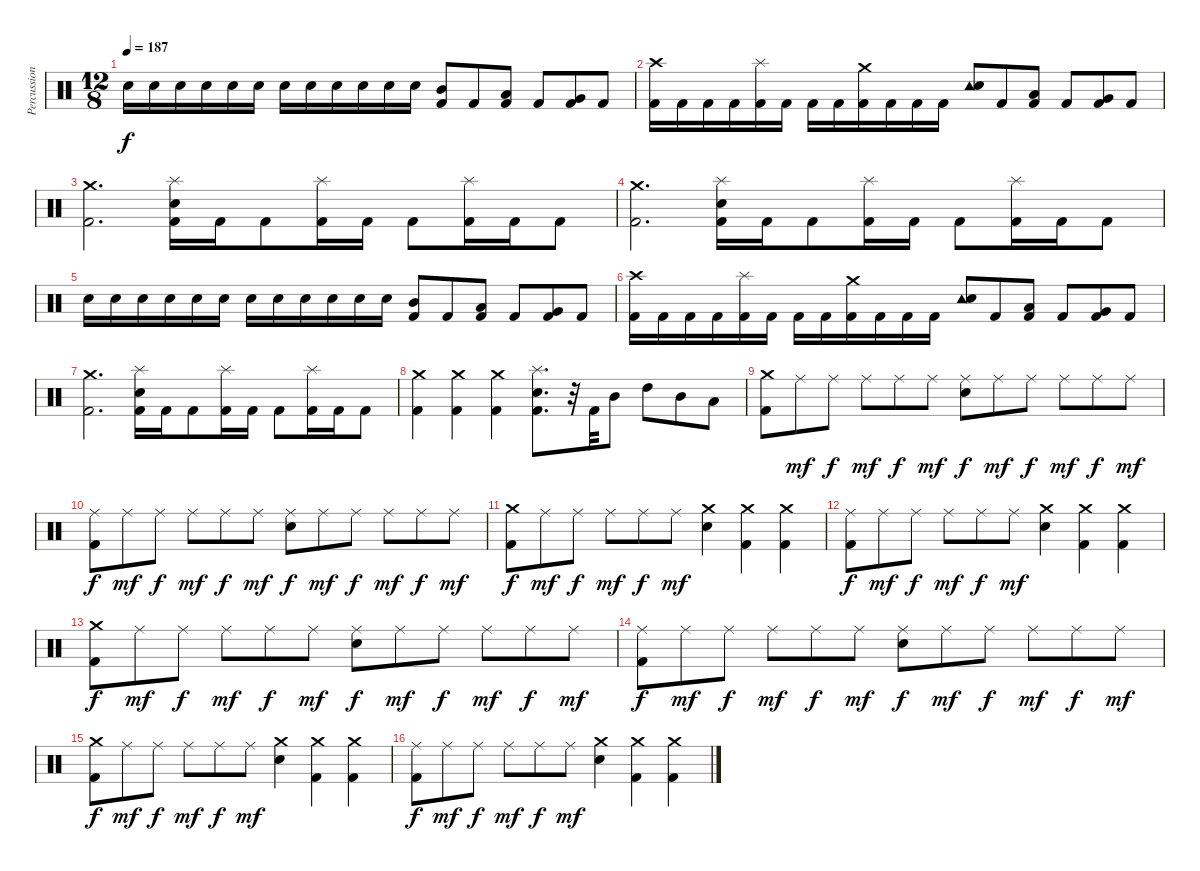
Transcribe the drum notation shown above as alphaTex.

\track ("Percussion" "Percussion") {instrument percussion}
\staff {score}
\articulation defaults
\ts (12 8)
\tempo 187
\clef neutral
\ks c "Snare (hit) 2".16{dy f} "Snare (hit) 2".16 "Snare (hit) 2".16 "Snare (hit) 2".16 "Snare (hit) 2".16 "Snare (hit) 2".16 "Snare (hit) 2".16 "Snare (hit) 2".16 "Snare (hit) 2".16 "Snare (hit) 2".16 "Snare (hit) 2".16 "Snare (hit) 2".16
("Mid Tom (hit)" "Kick (hit) 2").8 "Kick (hit) 2".8 ("Low Tom (hit)" "Kick (hit) 2").8 "Kick (hit) 2".8 ("Very Low Tom (hit)" "Kick (hit) 2").8 "Kick (hit) 2".8 |
("Crash high (hit)" "Kick (hit) 2").16 "Kick (hit) 2".16 "Kick (hit) 2".16 "Kick (hit) 2".16 ("Splash (hit)" "Kick (hit) 2").16 "Kick (hit) 2".16 "Kick (hit) 2".16 "Kick (hit) 2".16 ("Crash medium (hit)" "Kick (hit) 2").16 "Kick (hit) 2".16 "Kick (hit) 2".16 "Kick (hit) 2".16 ("Tambourine (hit)" "Snare (hit) 2").8 "Kick (hit) 2".8 ("Low Tom (hit)" "Kick (hit) 2").8 "Kick (hit) 2".8 ("Very Low Tom (hit)" "Kick (hit) 2").8 "Kick (hit) 2".8 |
("Crash medium (hit)" "Kick (hit) 2").2{d} ("Splash (hit)" "Snare (hit) 2" "Kick (hit) 2").16 "Kick (hit) 2".16 "Kick (hit) 2".8 ("Splash (hit)" "Kick (hit) 2").16 "Kick (hit) 2".16 "Kick (hit) 2".8 ("Splash (hit)" "Kick (hit) 2").16 "Kick (hit) 2".16 "Kick (hit) 2".8 |
("Crash medium (hit)" "Kick (hit) 2").2{d} ("Splash (hit)" "Snare (hit) 2" "Kick (hit) 2").16 "Kick (hit) 2".16 "Kick (hit) 2".8 ("Splash (hit)" "Kick (hit) 2").16 "Kick (hit) 2".16 "Kick (hit) 2".8 ("Splash (hit)" "Kick (hit) 2").16 "Kick (hit) 2".16 "Kick (hit) 2".8 |
"Snare (hit) 2".16 "Snare (hit) 2".16 "Snare (hit) 2".16 "Snare (hit) 2".16 "Snare (hit) 2".16 "Snare (hit) 2".16 "Snare (hit) 2".16 "Snare (hit) 2".16 "Snare (hit) 2".16 "Snare (hit) 2".16 "Snare (hit) 2".16 "Snare (hit) 2".16 ("Mid Tom (hit)" "Kick (hit) 2").8 "Kick (hit) 2".8 ("Low Tom (hit)" "Kick (hit) 2").8 "Kick (hit) 2".8 ("Very Low Tom (hit)" "Kick (hit) 2").8 "Kick (hit) 2".8 |
("Crash high (hit)" "Kick (hit) 2").16 "Kick (hit) 2".16 "Kick (hit) 2".16 "Kick (hit) 2".16 ("Splash (hit)" "Kick (hit) 2").16 "Kick (hit) 2".16 "Kick (hit) 2".16 "Kick (hit) 2".16 ("Crash medium (hit)" "Kick (hit) 2").16 "Kick (hit) 2".16 "Kick (hit) 2".16 "Kick (hit) 2".16 ("Tambourine (hit)" "Snare (hit) 2").8 "Kick (hit) 2".8 ("Low Tom (hit)" "Kick (hit) 2").8 "Kick (hit) 2".8 ("Very Low Tom (hit)" "Kick (hit) 2").8 "Kick (hit) 2".8 |
("Crash medium (hit)" "Kick (hit) 2").2{d} ("Splash (hit)" "Snare (hit) 2" "Kick (hit) 2").16 "Kick (hit) 2".16 "Kick (hit) 2".8 ("Splash (hit)" "Kick (hit) 2").16 "Kick (hit) 2".16 "Kick (hit) 2".8 ("Splash (hit)" "Kick (hit) 2").16 "Kick (hit) 2".16 "Kick (hit) 2".8 |
("Crash medium (hit)" "Kick (hit) 2").4 ("Crash medium (hit)" "Kick (hit) 2").4 ("Crash medium (hit)" "Kick (hit) 2").4 ("Splash (hit)" "Snare (hit) 2" "Kick (hit) 2").8{d} r.32 "Kick (hit) 2".32 "Mid Tom (hit)".8 "High Tom (hit)".8 "Mid Tom (hit)".8 "Low Tom (hit)".8 |
("Crash medium (hit)" "Kick (hit) 2").8 "Ride (middle)".8{dy mf} "Ride (middle)".8{dy f} "Ride (middle)".8{dy mf} "Ride (middle)".8{dy f} "Ride (middle)".8{dy mf} ("Ride (middle)" "Snare (hit) 2").8{dy f} "Ride (middle)".8{dy mf} "Ride (middle)".8{dy f} "Ride (middle)".8{dy mf} "Ride (middle)".8{dy f} "Ride (middle)".8{dy mf} |
("Ride (middle)" "Kick (hit) 2").8{dy f} "Ride (middle)".8{dy mf} "Ride (middle)".8{dy f} "Ride (middle)".8{dy mf} "Ride (middle)".8{dy f} "Ride (middle)".8{dy mf} ("Ride (middle)" "Snare (hit) 2").8{dy f} "Ride (middle)".8{dy mf} "Ride (middle)".8{dy f} "Ride (middle)".8{dy mf} "Ride (middle)".8{dy f} "Ride (middle)".8{dy mf} |
("Crash medium (hit)" "Kick (hit) 2").8{dy f} "Ride (middle)".8{dy mf} "Ride (middle)".8{dy f} "Ride (middle)".8{dy mf} "Ride (middle)".8{dy f} "Ride (middle)".8{dy mf} ("Crash medium (hit)" "Snare (hit) 2").4 ("Crash medium (hit)" "Kick (hit) 2").4 ("Crash medium (hit)" "Kick (hit) 2").4 |
("Ride (middle)" "Kick (hit) 2").8{dy f} "Ride (middle)".8{dy mf} "Ride (middle)".8{dy f} "Ride (middle)".8{dy mf} "Ride (middle)".8{dy f} "Ride (middle)".8{dy mf} ("Crash medium (hit)" "Snare (hit) 2").4 ("Crash medium (hit)" "Kick (hit) 2").4 ("Crash medium (hit)" "Kick (hit) 2").4 |
("Crash medium (hit)" "Kick (hit) 2").8{dy f} "Ride (middle)".8{dy mf} "Ride (middle)".8{dy f} "Ride (middle)".8{dy mf} "Ride (middle)".8{dy f} "Ride (middle)".8{dy mf} ("Ride (middle)" "Snare (hit) 2").8{dy f} "Ride (middle)".8{dy mf} "Ride (middle)".8{dy f} "Ride (middle)".8{dy mf} "Ride (middle)".8{dy f} "Ride (middle)".8{dy mf} |
("Ride (middle)" "Kick (hit) 2").8{dy f} "Ride (middle)".8{dy mf} "Ride (middle)".8{dy f} "Ride (middle)".8{dy mf} "Ride (middle)".8{dy f} "Ride (middle)".8{dy mf} ("Ride (middle)" "Snare (hit) 2").8{dy f} "Ride (middle)".8{dy mf} "Ride (middle)".8{dy f} "Ride (middle)".8{dy mf} "Ride (middle)".8{dy f} "Ride (middle)".8{dy mf} |
("Crash medium (hit)" "Kick (hit) 2").8{dy f} "Ride (middle)".8{dy mf} "Ride (middle)".8{dy f} "Ride (middle)".8{dy mf} "Ride (middle)".8{dy f} "Ride (middle)".8{dy mf} ("Crash medium (hit)" "Snare (hit) 2").4 ("Crash medium (hit)" "Kick (hit) 2").4 ("Crash medium (hit)" "Kick (hit) 2").4 |
("Ride (middle)" "Kick (hit) 2").8{dy f} "Ride (middle)".8{dy mf} "Ride (middle)".8{dy f} "Ride (middle)".8{dy mf} "Ride (middle)".8{dy f} "Ride (middle)".8{dy mf} ("Crash medium (hit)" "Snare (hit) 2").4 ("Crash medium (hit)" "Kick (hit) 2").4 ("Crash medium (hit)" "Kick (hit) 2").4
